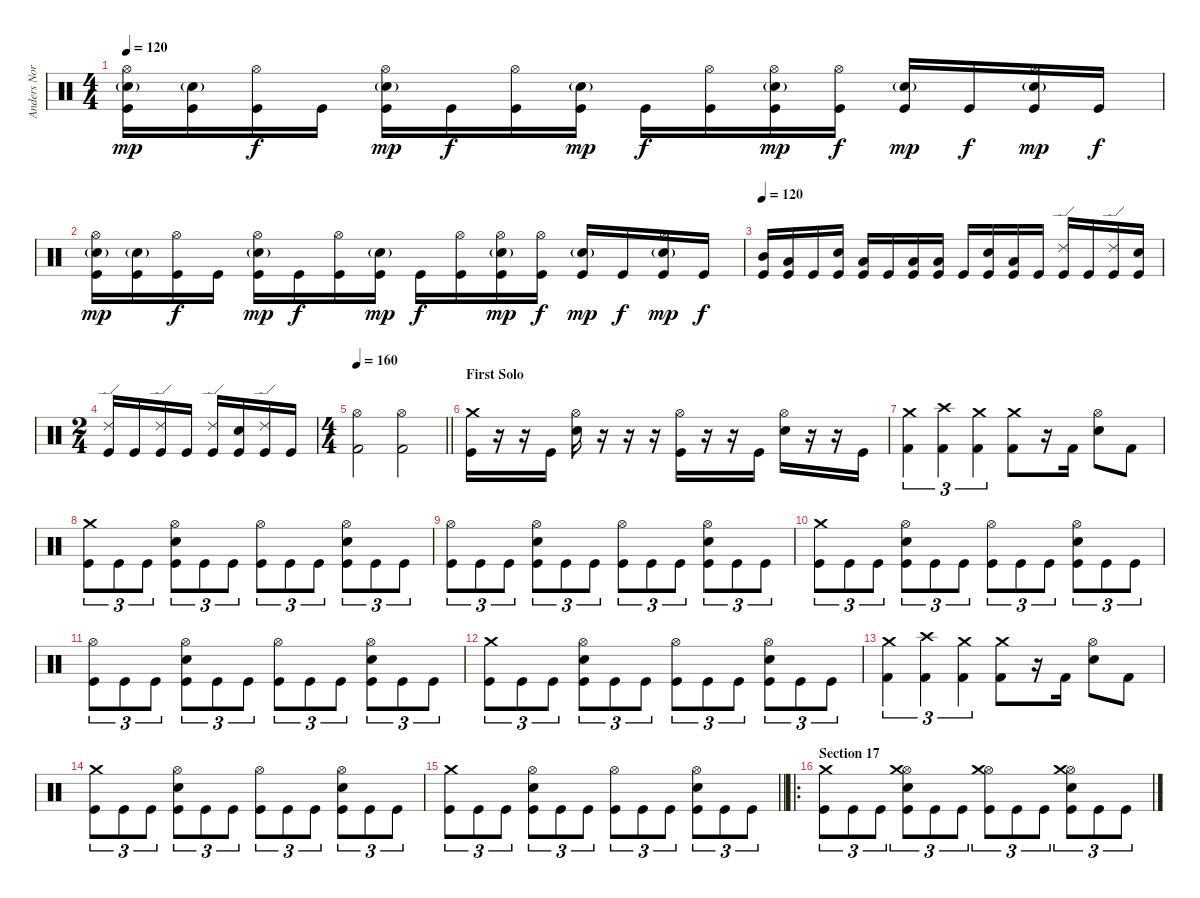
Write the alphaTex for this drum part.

\track ("Anders Nordin" "Anders Nor") {instrument percussion}
\staff {score}
\articulation defaults
\ts (4 4)
\tempo 120
\clef neutral
\ks c
("Snare (hit) 2"{g} "Hi-Hat (open)" "Kick (hit)").16{dy mp} ("Snare (hit) 2"{g} "Kick (hit)").16 ("Hi-Hat (open)" "Kick (hit)").16{dy f} "Kick (hit)".16 ("Snare (hit) 2"{g} "Hi-Hat (open)" "Kick (hit)").16{dy mp} "Kick (hit)".16{dy f} ("Hi-Hat (open)" "Kick (hit)").16 ("Snare (hit) 2"{g} "Kick (hit)").16{dy mp} "Kick (hit)".16{dy f} ("Hi-Hat (open)" "Kick (hit)").16 ("Snare (hit) 2"{g} "Hi-Hat (open)" "Kick (hit)").16{dy mp} ("Hi-Hat (open)" "Kick (hit)").16{dy f} ("Snare (hit) 2"{g} "Kick (hit)").16{dy mp} "Kick (hit)".16{dy f} ("Snare (hit) 2"{g} "Hi-Hat (open)" "Kick (hit)").16{dy mp} "Kick (hit)".16{dy f} |
("Snare (hit) 2"{g} "Hi-Hat (open)" "Kick (hit)").16{dy mp} ("Snare (hit) 2"{g} "Kick (hit)").16 ("Hi-Hat (open)" "Kick (hit)").16{dy f} "Kick (hit)".16 ("Snare (hit) 2"{g} "Hi-Hat (open)" "Kick (hit)").16{dy mp} "Kick (hit)".16{dy f} ("Hi-Hat (open)" "Kick (hit)").16 ("Snare (hit) 2"{g} "Kick (hit)").16{dy mp} "Kick (hit)".16{dy f} ("Hi-Hat (open)" "Kick (hit)").16 ("Snare (hit) 2"{g} "Hi-Hat (open)" "Kick (hit)").16{dy mp} ("Hi-Hat (open)" "Kick (hit)").16{dy f} ("Snare (hit) 2"{g} "Kick (hit)").16{dy mp} "Kick (hit)".16{dy f} ("Snare (hit) 2"{g} "Hi-Hat (open)" "Kick (hit)").16{dy mp} "Kick (hit)".16{dy f} |
\tempo 120
("Mid Tom (hit)" "Kick (hit)").16 ("Low Tom (hit)" "Kick (hit)").16 "Kick (hit)".16 ("Snare (hit) 2" "Kick (hit)").16 ("Low Floor Tom (hit)" "Kick (hit)").16 "Kick (hit)".16 ("Low Tom (hit)" "Kick (hit)").16 ("Low Tom (hit)" "Kick (hit)").16 "Kick (hit)".16 ("Snare (hit) 2" "Kick (hit)").16 ("Low Floor Tom (hit)" "Kick (hit)").16 "Kick (hit)".16 ("Ride (edge) 2" "Kick (hit)").16 "Kick (hit)".16 ("Ride (edge) 2" "Kick (hit)").16 ("Snare (hit) 2" "Kick (hit)").16 |
\ts (2 4)
("Ride (edge) 2" "Kick (hit)").16 "Kick (hit)".16 ("Ride (edge) 2" "Kick (hit)").16 "Kick (hit)".16 ("Ride (edge) 2" "Kick (hit)").16 ("Snare (hit) 2" "Kick (hit)").16 ("Ride (edge) 2" "Kick (hit)").16 "Kick (hit)".16 |
\ts (4 4)
\tempo 160
\barLineRight lightlight
("Hi-Hat (open)" "Kick (hit) 2").2 ("Hi-Hat (open)" "Kick (hit) 2").2 |
\section ("" "First Solo")
("Crash medium (hit)" "Kick (hit)").16 r.16 r.16 "Kick (hit)".16 ("Snare (hit) 2" "Hi-Hat (open)").16 r.16 r.16 r.16 ("Hi-Hat (open)" "Kick (hit)").16 r.16 r.16 "Kick (hit)".16 ("Snare (hit) 2" "Hi-Hat (open)").16 r.16 r.16 "Kick (hit)".16 |
("Crash medium (hit)" "Kick (hit) 2").4{tu (3 2)} ("Crash high (hit)" "Kick (hit) 2").4{tu (3 2)} ("Crash medium (hit)" "Kick (hit) 2").4{tu (3 2)} ("Crash medium (hit)" "Kick (hit) 2").8 r.16 "Kick (hit) 2".16 ("Snare (hit) 2" "Hi-Hat (open)").8 "Kick (hit) 2".8 |
("Crash medium (hit)" "Kick (hit)").8{tu (3 2)} "Kick (hit)".8{tu (3 2)} "Kick (hit)".8{tu (3 2)} ("Hi-Hat (open)" "Electric Snare (hit)" "Kick (hit)").8{tu (3 2)} "Kick (hit)".8{tu (3 2)} "Kick (hit)".8{tu (3 2)} ("Hi-Hat (open)" "Kick (hit)").8{tu (3 2)} "Kick (hit)".8{tu (3 2)} "Kick (hit)".8{tu (3 2)} ("Hi-Hat (open)" "Electric Snare (hit)" "Kick (hit)").8{tu (3 2)} "Kick (hit)".8{tu (3 2)} "Kick (hit)".8{tu (3 2)} |
("Hi-Hat (open)" "Kick (hit)").8{tu (3 2)} "Kick (hit)".8{tu (3 2)} "Kick (hit)".8{tu (3 2)} ("Hi-Hat (open)" "Electric Snare (hit)" "Kick (hit)").8{tu (3 2)} "Kick (hit)".8{tu (3 2)} "Kick (hit)".8{tu (3 2)} ("Hi-Hat (open)" "Kick (hit)").8{tu (3 2)} "Kick (hit)".8{tu (3 2)} "Kick (hit)".8{tu (3 2)} ("Hi-Hat (open)" "Electric Snare (hit)" "Kick (hit)").8{tu (3 2)} "Kick (hit)".8{tu (3 2)} "Kick (hit)".8{tu (3 2)} |
("Crash medium (hit)" "Kick (hit)").8{tu (3 2)} "Kick (hit)".8{tu (3 2)} "Kick (hit)".8{tu (3 2)} ("Hi-Hat (open)" "Electric Snare (hit)" "Kick (hit)").8{tu (3 2)} "Kick (hit)".8{tu (3 2)} "Kick (hit)".8{tu (3 2)} ("Hi-Hat (open)" "Kick (hit)").8{tu (3 2)} "Kick (hit)".8{tu (3 2)} "Kick (hit)".8{tu (3 2)} ("Hi-Hat (open)" "Electric Snare (hit)" "Kick (hit)").8{tu (3 2)} "Kick (hit)".8{tu (3 2)} "Kick (hit)".8{tu (3 2)} |
("Hi-Hat (open)" "Kick (hit)").8{tu (3 2)} "Kick (hit)".8{tu (3 2)} "Kick (hit)".8{tu (3 2)} ("Hi-Hat (open)" "Electric Snare (hit)" "Kick (hit)").8{tu (3 2)} "Kick (hit)".8{tu (3 2)} "Kick (hit)".8{tu (3 2)} ("Hi-Hat (open)" "Kick (hit)").8{tu (3 2)} "Kick (hit)".8{tu (3 2)} "Kick (hit)".8{tu (3 2)} ("Hi-Hat (open)" "Electric Snare (hit)" "Kick (hit)").8{tu (3 2)} "Kick (hit)".8{tu (3 2)} "Kick (hit)".8{tu (3 2)} |
("Crash medium (hit)" "Kick (hit)").8{tu (3 2)} "Kick (hit)".8{tu (3 2)} "Kick (hit)".8{tu (3 2)} ("Hi-Hat (open)" "Electric Snare (hit)" "Kick (hit)").8{tu (3 2)} "Kick (hit)".8{tu (3 2)} "Kick (hit)".8{tu (3 2)} ("Hi-Hat (open)" "Kick (hit)").8{tu (3 2)} "Kick (hit)".8{tu (3 2)} "Kick (hit)".8{tu (3 2)} ("Hi-Hat (open)" "Electric Snare (hit)" "Kick (hit)").8{tu (3 2)} "Kick (hit)".8{tu (3 2)} "Kick (hit)".8{tu (3 2)} |
("Crash medium (hit)" "Kick (hit) 2").4{tu (3 2)} ("Crash high (hit)" "Kick (hit) 2").4{tu (3 2)} ("Crash medium (hit)" "Kick (hit) 2").4{tu (3 2)} ("Crash medium (hit)" "Kick (hit) 2").8 r.16 "Kick (hit) 2".16 ("Snare (hit) 2" "Hi-Hat (open)").8 "Kick (hit) 2".8 |
("Crash medium (hit)" "Kick (hit)").8{tu (3 2)} "Kick (hit)".8{tu (3 2)} "Kick (hit)".8{tu (3 2)} ("Hi-Hat (open)" "Electric Snare (hit)" "Kick (hit)").8{tu (3 2)} "Kick (hit)".8{tu (3 2)} "Kick (hit)".8{tu (3 2)} ("Hi-Hat (open)" "Kick (hit)").8{tu (3 2)} "Kick (hit)".8{tu (3 2)} "Kick (hit)".8{tu (3 2)} ("Hi-Hat (open)" "Electric Snare (hit)" "Kick (hit)").8{tu (3 2)} "Kick (hit)".8{tu (3 2)} "Kick (hit)".8{tu (3 2)} |
\barLineRight lightlight
("Crash medium (hit)" "Kick (hit)").8{tu (3 2)} "Kick (hit)".8{tu (3 2)} "Kick (hit)".8{tu (3 2)} ("Hi-Hat (open)" "Electric Snare (hit)" "Kick (hit)").8{tu (3 2)} "Kick (hit)".8{tu (3 2)} "Kick (hit)".8{tu (3 2)} ("Hi-Hat (open)" "Kick (hit)").8{tu (3 2)} "Kick (hit)".8{tu (3 2)} "Kick (hit)".8{tu (3 2)} ("Hi-Hat (open)" "Electric Snare (hit)" "Kick (hit)").8{tu (3 2)} "Kick (hit)".8{tu (3 2)} "Kick (hit)".8{tu (3 2)} |
\ro
\section ("" "Section 17")
("Crash medium (hit)" "Kick (hit)").8{tu (3 2)} "Kick (hit)".8{tu (3 2)} "Kick (hit)".8{tu (3 2)} ("Hi-Hat (open)" "Crash medium (hit)" "Electric Snare (hit)" "Kick (hit)").8{tu (3 2)} "Kick (hit)".8{tu (3 2)} "Kick (hit)".8{tu (3 2)} ("Hi-Hat (open)" "Crash medium (hit)" "Kick (hit)").8{tu (3 2)} "Kick (hit)".8{tu (3 2)} "Kick (hit)".8{tu (3 2)} ("Hi-Hat (open)" "Crash medium (hit)" "Electric Snare (hit)" "Kick (hit)").8{tu (3 2)} "Kick (hit)".8{tu (3 2)} "Kick (hit)".8{tu (3 2)}
